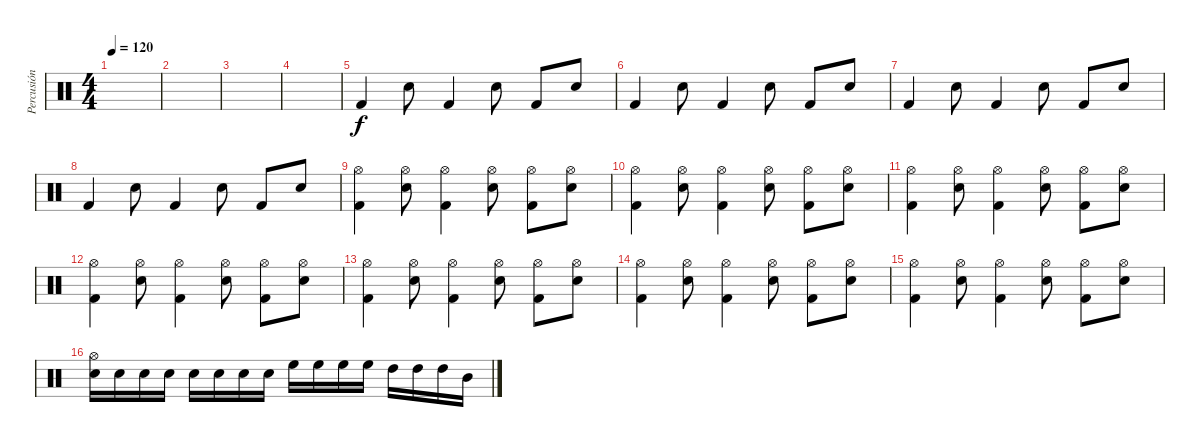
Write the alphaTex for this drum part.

\track ("Percusión" "Percusión") {instrument percussion}
\staff {score}
\articulation defaults
\ts (4 4)
\tempo 120
\clef neutral
\ks c
|
|
|
|
"Kick (hit) 2".4 "Snare (hit) 2".8 "Kick (hit) 2".4 "Electric Snare (hit)".8 "Kick (hit) 2".8 "Snare (hit) 2".8 |
"Kick (hit) 2".4 "Snare (hit) 2".8 "Kick (hit) 2".4 "Electric Snare (hit)".8 "Kick (hit) 2".8 "Snare (hit) 2".8 |
"Kick (hit) 2".4 "Snare (hit) 2".8 "Kick (hit) 2".4 "Electric Snare (hit)".8 "Kick (hit) 2".8 "Snare (hit) 2".8 |
"Kick (hit) 2".4 "Snare (hit) 2".8 "Kick (hit) 2".4 "Electric Snare (hit)".8 "Kick (hit) 2".8 "Snare (hit) 2".8 |
("Kick (hit) 2" "Hi-Hat (open)").4 ("Snare (hit) 2" "Hi-Hat (open)").8 ("Kick (hit) 2" "Hi-Hat (open)").4 ("Electric Snare (hit)" "Hi-Hat (open)").8 ("Kick (hit) 2" "Hi-Hat (open)").8 ("Snare (hit) 2" "Hi-Hat (open)").8 |
("Kick (hit) 2" "Hi-Hat (open)").4 ("Snare (hit) 2" "Hi-Hat (open)").8 ("Kick (hit) 2" "Hi-Hat (open)").4 ("Electric Snare (hit)" "Hi-Hat (open)").8 ("Kick (hit) 2" "Hi-Hat (open)").8 ("Snare (hit) 2" "Hi-Hat (open)").8 |
("Kick (hit) 2" "Hi-Hat (open)").4 ("Snare (hit) 2" "Hi-Hat (open)").8 ("Kick (hit) 2" "Hi-Hat (open)").4 ("Electric Snare (hit)" "Hi-Hat (open)").8 ("Kick (hit) 2" "Hi-Hat (open)").8 ("Snare (hit) 2" "Hi-Hat (open)").8 |
("Kick (hit) 2" "Hi-Hat (open)").4 ("Snare (hit) 2" "Hi-Hat (open)").8 ("Kick (hit) 2" "Hi-Hat (open)").4 ("Electric Snare (hit)" "Hi-Hat (open)").8 ("Kick (hit) 2" "Hi-Hat (open)").8 ("Snare (hit) 2" "Hi-Hat (open)").8 |
("Kick (hit) 2" "Hi-Hat (open)").4 ("Snare (hit) 2" "Hi-Hat (open)").8 ("Kick (hit) 2" "Hi-Hat (open)").4 ("Electric Snare (hit)" "Hi-Hat (open)").8 ("Kick (hit) 2" "Hi-Hat (open)").8 ("Snare (hit) 2" "Hi-Hat (open)").8 |
("Kick (hit) 2" "Hi-Hat (open)").4 ("Snare (hit) 2" "Hi-Hat (open)").8 ("Kick (hit) 2" "Hi-Hat (open)").4 ("Electric Snare (hit)" "Hi-Hat (open)").8 ("Kick (hit) 2" "Hi-Hat (open)").8 ("Snare (hit) 2" "Hi-Hat (open)").8 |
("Kick (hit) 2" "Hi-Hat (open)").4 ("Snare (hit) 2" "Hi-Hat (open)").8 ("Kick (hit) 2" "Hi-Hat (open)").4 ("Electric Snare (hit)" "Hi-Hat (open)").8 ("Kick (hit) 2" "Hi-Hat (open)").8 ("Snare (hit) 2" "Hi-Hat (open)").8 |
("Snare (hit) 2" "Hi-Hat (open)").16 "Snare (hit) 2".16 "Snare (hit) 2".16 "Snare (hit) 2".16 "Snare (hit) 2".16 "Snare (hit) 2".16 "Snare (hit) 2".16 "Snare (hit) 2".16 "High Floor Tom (hit)".16 "High Floor Tom (hit)".16 "High Floor Tom (hit)".16 "High Floor Tom (hit)".16 "High Tom (hit)".16 "High Tom (hit)".16 "High Tom (hit)".16 "Mid Tom (hit)".16
